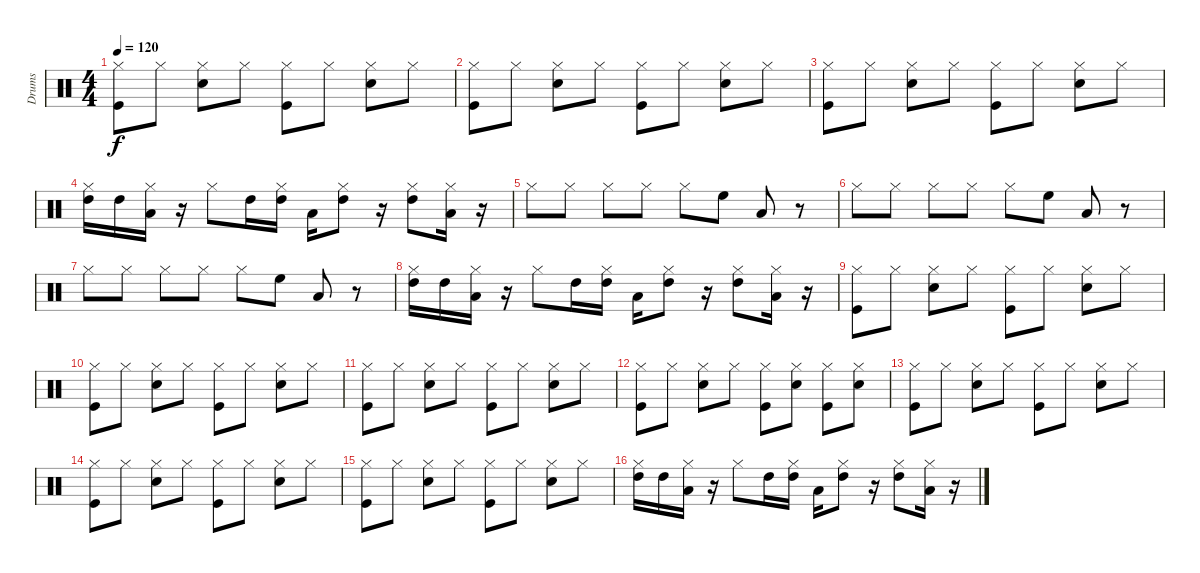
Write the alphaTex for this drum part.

\track ("Drums" "Drums") {instrument percussion}
\staff {score}
\articulation defaults
\ts (4 4)
\tempo 120
\clef neutral
\ks c
("Kick (hit)" "Hi-Hat (closed)").8{dy f} "Hi-Hat (closed)".8 ("Snare (hit) 2" "Hi-Hat (closed)").8 "Hi-Hat (closed)".8 ("Kick (hit)" "Hi-Hat (closed)").8 "Hi-Hat (closed)".8 ("Snare (hit) 2" "Hi-Hat (closed)").8 "Hi-Hat (closed)".8 |
("Kick (hit)" "Hi-Hat (closed)").8 "Hi-Hat (closed)".8 ("Snare (hit) 2" "Hi-Hat (closed)").8 "Hi-Hat (closed)".8 ("Kick (hit)" "Hi-Hat (closed)").8 "Hi-Hat (closed)".8 ("Snare (hit) 2" "Hi-Hat (closed)").8 "Hi-Hat (closed)".8 |
("Kick (hit)" "Hi-Hat (closed)").8 "Hi-Hat (closed)".8 ("Snare (hit) 2" "Hi-Hat (closed)").8 "Hi-Hat (closed)".8 ("Kick (hit)" "Hi-Hat (closed)").8 "Hi-Hat (closed)".8 ("Snare (hit) 2" "Hi-Hat (closed)").8 "Hi-Hat (closed)".8 |
("High Tom (hit)" "Hi-Hat (closed)").16 "High Tom (hit)".16 ("Low Tom (hit)" "Hi-Hat (closed)").16 r.16 "Hi-Hat (closed)".8 "High Tom (hit)".16 ("High Tom (hit)" "Hi-Hat (closed)").16 "Low Tom (hit)".16 ("High Tom (hit)" "Hi-Hat (closed)").8 r.16 ("High Tom (hit)" "Hi-Hat (closed)").8 ("Low Tom (hit)" "Hi-Hat (closed)").16 r.16 |
"Hi-Hat (closed)".8 "Hi-Hat (closed)".8 "Hi-Hat (closed)".8 "Hi-Hat (closed)".8 "Hi-Hat (closed)".8 "High Floor Tom (hit)".8 "Low Tom (hit)".8 r.8 |
"Hi-Hat (closed)".8 "Hi-Hat (closed)".8 "Hi-Hat (closed)".8 "Hi-Hat (closed)".8 "Hi-Hat (closed)".8 "High Floor Tom (hit)".8 "Low Tom (hit)".8 r.8 |
"Hi-Hat (closed)".8 "Hi-Hat (closed)".8 "Hi-Hat (closed)".8 "Hi-Hat (closed)".8 "Hi-Hat (closed)".8 "High Floor Tom (hit)".8 "Low Tom (hit)".8 r.8 |
("High Tom (hit)" "Hi-Hat (closed)").16 "High Tom (hit)".16 ("Low Tom (hit)" "Hi-Hat (closed)").16 r.16 "Hi-Hat (closed)".8 "High Tom (hit)".16 ("High Tom (hit)" "Hi-Hat (closed)").16 "Low Tom (hit)".16 ("High Tom (hit)" "Hi-Hat (closed)").8 r.16 ("High Tom (hit)" "Hi-Hat (closed)").8 ("Low Tom (hit)" "Hi-Hat (closed)").16 r.16 |
("Kick (hit)" "Hi-Hat (closed)").8 "Hi-Hat (closed)".8 ("Snare (hit) 2" "Hi-Hat (closed)").8 "Hi-Hat (closed)".8 ("Kick (hit)" "Hi-Hat (closed)").8 "Hi-Hat (closed)".8 ("Snare (hit) 2" "Hi-Hat (closed)").8 "Hi-Hat (closed)".8 |
("Kick (hit)" "Hi-Hat (closed)").8 "Hi-Hat (closed)".8 ("Snare (hit) 2" "Hi-Hat (closed)").8 "Hi-Hat (closed)".8 ("Kick (hit)" "Hi-Hat (closed)").8 "Hi-Hat (closed)".8 ("Snare (hit) 2" "Hi-Hat (closed)").8 "Hi-Hat (closed)".8 |
("Kick (hit)" "Hi-Hat (closed)").8 "Hi-Hat (closed)".8 ("Snare (hit) 2" "Hi-Hat (closed)").8 "Hi-Hat (closed)".8 ("Kick (hit)" "Hi-Hat (closed)").8 "Hi-Hat (closed)".8 ("Snare (hit) 2" "Hi-Hat (closed)").8 "Hi-Hat (closed)".8 |
("Kick (hit)" "Hi-Hat (closed)").8 "Hi-Hat (closed)".8 ("Snare (hit) 2" "Hi-Hat (closed)").8 "Hi-Hat (closed)".8 ("Kick (hit)" "Hi-Hat (closed)").8 ("Snare (hit) 2" "Hi-Hat (closed)").8 ("Kick (hit)" "Hi-Hat (closed)").8 ("Snare (hit) 2" "Hi-Hat (closed)").8 |
("Kick (hit)" "Hi-Hat (closed)").8 "Hi-Hat (closed)".8 ("Snare (hit) 2" "Hi-Hat (closed)").8 "Hi-Hat (closed)".8 ("Kick (hit)" "Hi-Hat (closed)").8 "Hi-Hat (closed)".8 ("Snare (hit) 2" "Hi-Hat (closed)").8 "Hi-Hat (closed)".8 |
("Kick (hit)" "Hi-Hat (closed)").8 "Hi-Hat (closed)".8 ("Snare (hit) 2" "Hi-Hat (closed)").8 "Hi-Hat (closed)".8 ("Kick (hit)" "Hi-Hat (closed)").8 "Hi-Hat (closed)".8 ("Snare (hit) 2" "Hi-Hat (closed)").8 "Hi-Hat (closed)".8 |
("Kick (hit)" "Hi-Hat (closed)").8 "Hi-Hat (closed)".8 ("Snare (hit) 2" "Hi-Hat (closed)").8 "Hi-Hat (closed)".8 ("Kick (hit)" "Hi-Hat (closed)").8 "Hi-Hat (closed)".8 ("Snare (hit) 2" "Hi-Hat (closed)").8 "Hi-Hat (closed)".8 |
("High Tom (hit)" "Hi-Hat (closed)").16 "High Tom (hit)".16 ("Low Tom (hit)" "Hi-Hat (closed)").16 r.16 "Hi-Hat (closed)".8 "High Tom (hit)".16 ("High Tom (hit)" "Hi-Hat (closed)").16 "Low Tom (hit)".16 ("High Tom (hit)" "Hi-Hat (closed)").8 r.16 ("High Tom (hit)" "Hi-Hat (closed)").8 ("Low Tom (hit)" "Hi-Hat (closed)").16 r.16
